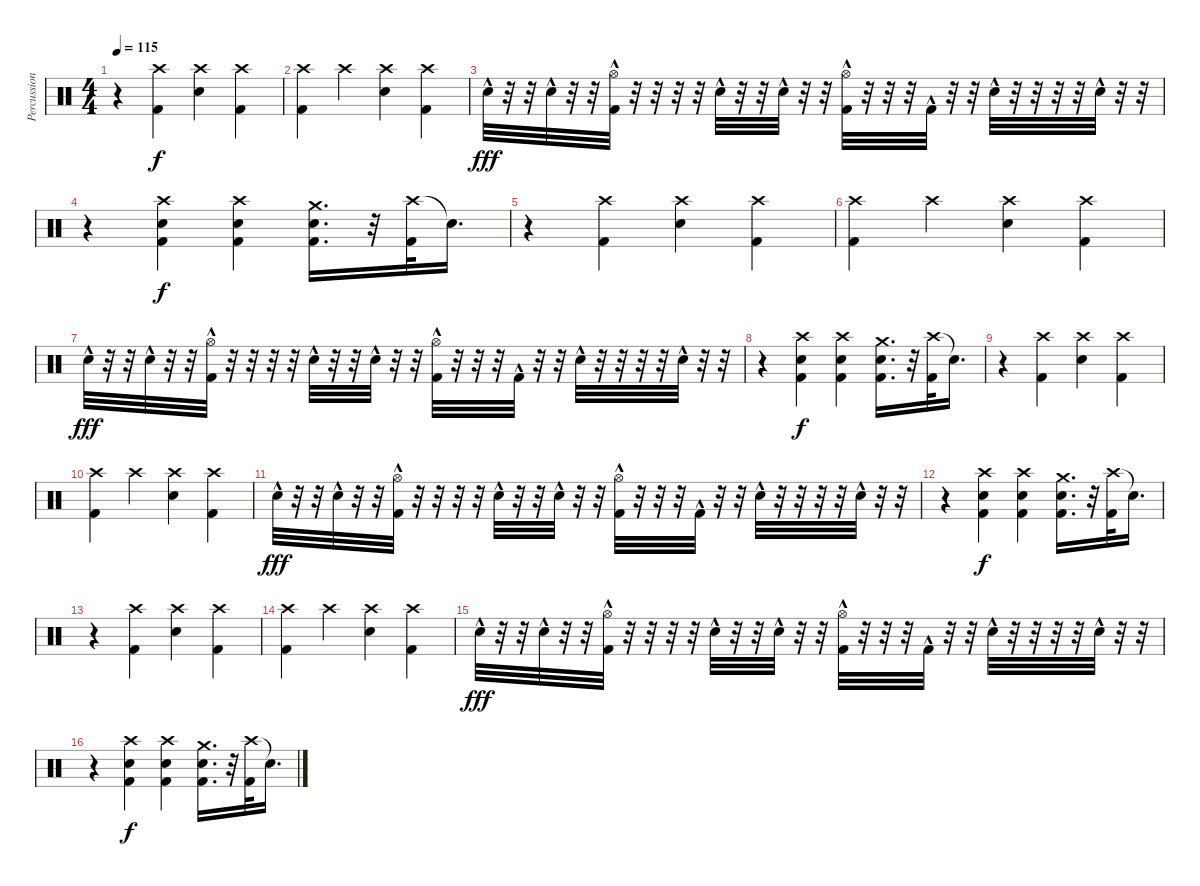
\track ("Percussion" "Percussion") {instrument percussion}
\staff {score}
\articulation defaults
\ts (4 4)
\tempo 115
\clef neutral
\ks c
r.4{dy f} ("Crash high (hit)" "Kick (hit) 2").4 ("Crash high (hit)" "Electric Snare (hit)").4 ("Crash high (hit)" "Kick (hit) 2").4 |
("Crash high (hit)" "Kick (hit) 2").4 "Crash high (hit)".4 ("Crash high (hit)" "Electric Snare (hit)").4 ("Crash high (hit)" "Kick (hit) 2").4 |
"Electric Snare (hit)"{hac}.32{dy fff} r.32 r.32 "Electric Snare (hit)"{hac}.32 r.32 r.32 ("Hi-Hat (open)"{hac} "Kick (hit) 2"{hac}).32 r.32 r.32 r.32 r.32 "Electric Snare (hit)"{hac}.32 r.32 r.32 "Electric Snare (hit)"{hac}.32 r.32 r.32 ("Hi-Hat (open)"{hac} "Kick (hit) 2"{hac}).32 r.32 r.32 r.32 "Kick (hit) 2"{hac}.32 r.32 r.32 "Electric Snare (hit)"{hac}.32 r.32 r.32 r.32 r.32 "Electric Snare (hit)"{hac}.32 r.32 r.32 |
r.4 ("Crash high (hit)" "Electric Snare (hit)" "Kick (hit) 2").4{dy f} ("Crash high (hit)" "Electric Snare (hit)" "Kick (hit) 2").4 ("Crash medium (hit)" "Electric Snare (hit)" "Kick (hit) 2").16{d} r.32 ("Crash high (hit)" "Kick (hit) 2").32 "Snare (hit)"{t}.16{d} |
r.4 ("Crash high (hit)" "Kick (hit) 2").4 ("Crash high (hit)" "Electric Snare (hit)").4 ("Crash high (hit)" "Kick (hit) 2").4 |
("Crash high (hit)" "Kick (hit) 2").4 "Crash high (hit)".4 ("Crash high (hit)" "Electric Snare (hit)").4 ("Crash high (hit)" "Kick (hit) 2").4 |
"Electric Snare (hit)"{hac}.32{dy fff} r.32 r.32 "Electric Snare (hit)"{hac}.32 r.32 r.32 ("Hi-Hat (open)"{hac} "Kick (hit) 2"{hac}).32 r.32 r.32 r.32 r.32 "Electric Snare (hit)"{hac}.32 r.32 r.32 "Electric Snare (hit)"{hac}.32 r.32 r.32 ("Hi-Hat (open)"{hac} "Kick (hit) 2"{hac}).32 r.32 r.32 r.32 "Kick (hit) 2"{hac}.32 r.32 r.32 "Electric Snare (hit)"{hac}.32 r.32 r.32 r.32 r.32 "Electric Snare (hit)"{hac}.32 r.32 r.32 |
r.4 ("Crash high (hit)" "Electric Snare (hit)" "Kick (hit) 2").4{dy f} ("Crash high (hit)" "Electric Snare (hit)" "Kick (hit) 2").4 ("Crash medium (hit)" "Electric Snare (hit)" "Kick (hit) 2").16{d} r.32 ("Crash high (hit)" "Kick (hit) 2").32 "Snare (hit)"{t}.16{d} |
r.4 ("Crash high (hit)" "Kick (hit) 2").4 ("Crash high (hit)" "Electric Snare (hit)").4 ("Crash high (hit)" "Kick (hit) 2").4 |
("Crash high (hit)" "Kick (hit) 2").4 "Crash high (hit)".4 ("Crash high (hit)" "Electric Snare (hit)").4 ("Crash high (hit)" "Kick (hit) 2").4 |
"Electric Snare (hit)"{hac}.32{dy fff} r.32 r.32 "Electric Snare (hit)"{hac}.32 r.32 r.32 ("Hi-Hat (open)"{hac} "Kick (hit) 2"{hac}).32 r.32 r.32 r.32 r.32 "Electric Snare (hit)"{hac}.32 r.32 r.32 "Electric Snare (hit)"{hac}.32 r.32 r.32 ("Hi-Hat (open)"{hac} "Kick (hit) 2"{hac}).32 r.32 r.32 r.32 "Kick (hit) 2"{hac}.32 r.32 r.32 "Electric Snare (hit)"{hac}.32 r.32 r.32 r.32 r.32 "Electric Snare (hit)"{hac}.32 r.32 r.32 |
r.4 ("Crash high (hit)" "Electric Snare (hit)" "Kick (hit) 2").4{dy f} ("Crash high (hit)" "Electric Snare (hit)" "Kick (hit) 2").4 ("Crash medium (hit)" "Electric Snare (hit)" "Kick (hit) 2").16{d} r.32 ("Crash high (hit)" "Kick (hit) 2").32 "Snare (hit)"{t}.16{d} |
r.4 ("Crash high (hit)" "Kick (hit) 2").4 ("Crash high (hit)" "Electric Snare (hit)").4 ("Crash high (hit)" "Kick (hit) 2").4 |
("Crash high (hit)" "Kick (hit) 2").4 "Crash high (hit)".4 ("Crash high (hit)" "Electric Snare (hit)").4 ("Crash high (hit)" "Kick (hit) 2").4 |
"Electric Snare (hit)"{hac}.32{dy fff} r.32 r.32 "Electric Snare (hit)"{hac}.32 r.32 r.32 ("Hi-Hat (open)"{hac} "Kick (hit) 2"{hac}).32 r.32 r.32 r.32 r.32 "Electric Snare (hit)"{hac}.32 r.32 r.32 "Electric Snare (hit)"{hac}.32 r.32 r.32 ("Hi-Hat (open)"{hac} "Kick (hit) 2"{hac}).32 r.32 r.32 r.32 "Kick (hit) 2"{hac}.32 r.32 r.32 "Electric Snare (hit)"{hac}.32 r.32 r.32 r.32 r.32 "Electric Snare (hit)"{hac}.32 r.32 r.32 |
r.4 ("Crash high (hit)" "Electric Snare (hit)" "Kick (hit) 2").4{dy f} ("Crash high (hit)" "Electric Snare (hit)" "Kick (hit) 2").4 ("Crash medium (hit)" "Electric Snare (hit)" "Kick (hit) 2").16{d} r.32 ("Crash high (hit)" "Kick (hit) 2").32 "Snare (hit)"{t}.16{d}
